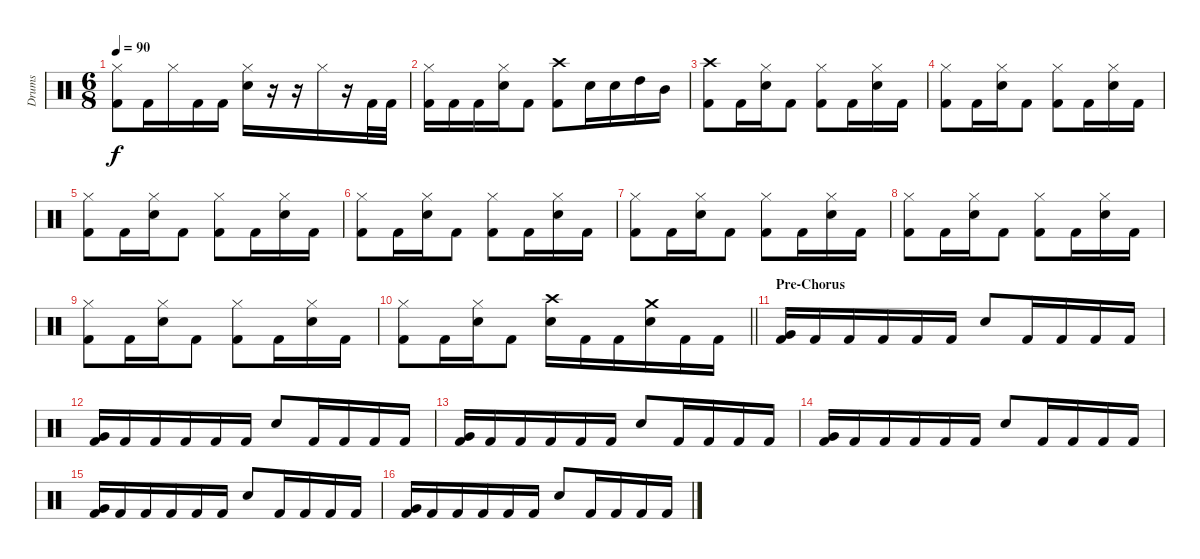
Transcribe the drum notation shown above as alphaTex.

\track ("Drums" "Drums") {instrument percussion}
\staff {score}
\articulation defaults
\ts (6 8)
\tempo 90
\clef neutral
\ks c
("Hi-Hat (closed)" "Kick (hit) 2").8{dy f} "Kick (hit) 2".16 "Hi-Hat (closed)".16 "Kick (hit) 2".16 "Kick (hit) 2".16 ("Hi-Hat (closed)" "Snare (hit) 2").16 r.16 r.16 "Hi-Hat (closed)".16 r.16 "Kick (hit) 2".32 "Kick (hit) 2".32 |
("Hi-Hat (closed)" "Kick (hit) 2").16 "Kick (hit) 2".16 "Kick (hit) 2".16 ("Hi-Hat (closed)" "Snare (hit) 2").16 "Kick (hit) 2".8 ("Crash high (hit)" "Kick (hit) 2").8 "Snare (hit) 2".16 "Snare (hit) 2".16 "High Tom (hit)".16 "Mid Tom (hit)".16 |
("Crash high (hit)" "Kick (hit) 2").8 "Kick (hit) 2".16 ("Hi-Hat (closed)" "Snare (hit) 2").16 "Kick (hit) 2".8 ("Hi-Hat (closed)" "Kick (hit) 2").8 "Kick (hit) 2".16 ("Hi-Hat (closed)" "Snare (hit) 2").16 "Kick (hit) 2".16 |
("Hi-Hat (closed)" "Kick (hit) 2").8 "Kick (hit) 2".16 ("Hi-Hat (closed)" "Snare (hit) 2").16 "Kick (hit) 2".8 ("Hi-Hat (closed)" "Kick (hit) 2").8 "Kick (hit) 2".16 ("Hi-Hat (closed)" "Snare (hit) 2").16 "Kick (hit) 2".16 |
("Hi-Hat (closed)" "Kick (hit) 2").8 "Kick (hit) 2".16 ("Hi-Hat (closed)" "Snare (hit) 2").16 "Kick (hit) 2".8 ("Hi-Hat (closed)" "Kick (hit) 2").8 "Kick (hit) 2".16 ("Hi-Hat (closed)" "Snare (hit) 2").16 "Kick (hit) 2".16 |
("Hi-Hat (closed)" "Kick (hit) 2").8 "Kick (hit) 2".16 ("Hi-Hat (closed)" "Snare (hit) 2").16 "Kick (hit) 2".8 ("Hi-Hat (closed)" "Kick (hit) 2").8 "Kick (hit) 2".16 ("Hi-Hat (closed)" "Snare (hit) 2").16 "Kick (hit) 2".16 |
("Hi-Hat (closed)" "Kick (hit) 2").8 "Kick (hit) 2".16 ("Hi-Hat (closed)" "Snare (hit) 2").16 "Kick (hit) 2".8 ("Hi-Hat (closed)" "Kick (hit) 2").8 "Kick (hit) 2".16 ("Hi-Hat (closed)" "Snare (hit) 2").16 "Kick (hit) 2".16 |
("Hi-Hat (closed)" "Kick (hit) 2").8 "Kick (hit) 2".16 ("Hi-Hat (closed)" "Snare (hit) 2").16 "Kick (hit) 2".8 ("Hi-Hat (closed)" "Kick (hit) 2").8 "Kick (hit) 2".16 ("Hi-Hat (closed)" "Snare (hit) 2").16 "Kick (hit) 2".16 |
("Hi-Hat (closed)" "Kick (hit) 2").8 "Kick (hit) 2".16 ("Hi-Hat (closed)" "Snare (hit) 2").16 "Kick (hit) 2".8 ("Hi-Hat (closed)" "Kick (hit) 2").8 "Kick (hit) 2".16 ("Hi-Hat (closed)" "Snare (hit) 2").16 "Kick (hit) 2".16 |
\barLineRight lightlight
("Hi-Hat (closed)" "Kick (hit) 2").8 "Kick (hit) 2".16 ("Hi-Hat (closed)" "Snare (hit) 2").16 "Kick (hit) 2".8 ("Crash high (hit)" "Snare (hit) 2").16 "Kick (hit) 2".16 "Kick (hit) 2".16 ("Crash medium (hit)" "Snare (hit) 2").16 "Kick (hit) 2".16 "Kick (hit) 2".16 |
\section ("" "Pre-Chorus")
("Kick (hit) 2" "Very Low Tom (hit)").16 "Kick (hit) 2".16 "Kick (hit) 2".16 "Kick (hit) 2".16 "Kick (hit) 2".16 "Kick (hit) 2".16 "Snare (hit) 2".8 "Kick (hit) 2".16 "Kick (hit) 2".16 "Kick (hit) 2".16 "Kick (hit) 2".16 |
("Kick (hit) 2" "Very Low Tom (hit)").16 "Kick (hit) 2".16 "Kick (hit) 2".16 "Kick (hit) 2".16 "Kick (hit) 2".16 "Kick (hit) 2".16 "Snare (hit) 2".8 "Kick (hit) 2".16 "Kick (hit) 2".16 "Kick (hit) 2".16 "Kick (hit) 2".16 |
("Kick (hit) 2" "Very Low Tom (hit)").16 "Kick (hit) 2".16 "Kick (hit) 2".16 "Kick (hit) 2".16 "Kick (hit) 2".16 "Kick (hit) 2".16 "Snare (hit) 2".8 "Kick (hit) 2".16 "Kick (hit) 2".16 "Kick (hit) 2".16 "Kick (hit) 2".16 |
("Kick (hit) 2" "Very Low Tom (hit)").16 "Kick (hit) 2".16 "Kick (hit) 2".16 "Kick (hit) 2".16 "Kick (hit) 2".16 "Kick (hit) 2".16 "Snare (hit) 2".8 "Kick (hit) 2".16 "Kick (hit) 2".16 "Kick (hit) 2".16 "Kick (hit) 2".16 |
("Kick (hit) 2" "Very Low Tom (hit)").16 "Kick (hit) 2".16 "Kick (hit) 2".16 "Kick (hit) 2".16 "Kick (hit) 2".16 "Kick (hit) 2".16 "Snare (hit) 2".8 "Kick (hit) 2".16 "Kick (hit) 2".16 "Kick (hit) 2".16 "Kick (hit) 2".16 |
("Kick (hit) 2" "Very Low Tom (hit)").16 "Kick (hit) 2".16 "Kick (hit) 2".16 "Kick (hit) 2".16 "Kick (hit) 2".16 "Kick (hit) 2".16 "Snare (hit) 2".8 "Kick (hit) 2".16 "Kick (hit) 2".16 "Kick (hit) 2".16 "Kick (hit) 2".16
